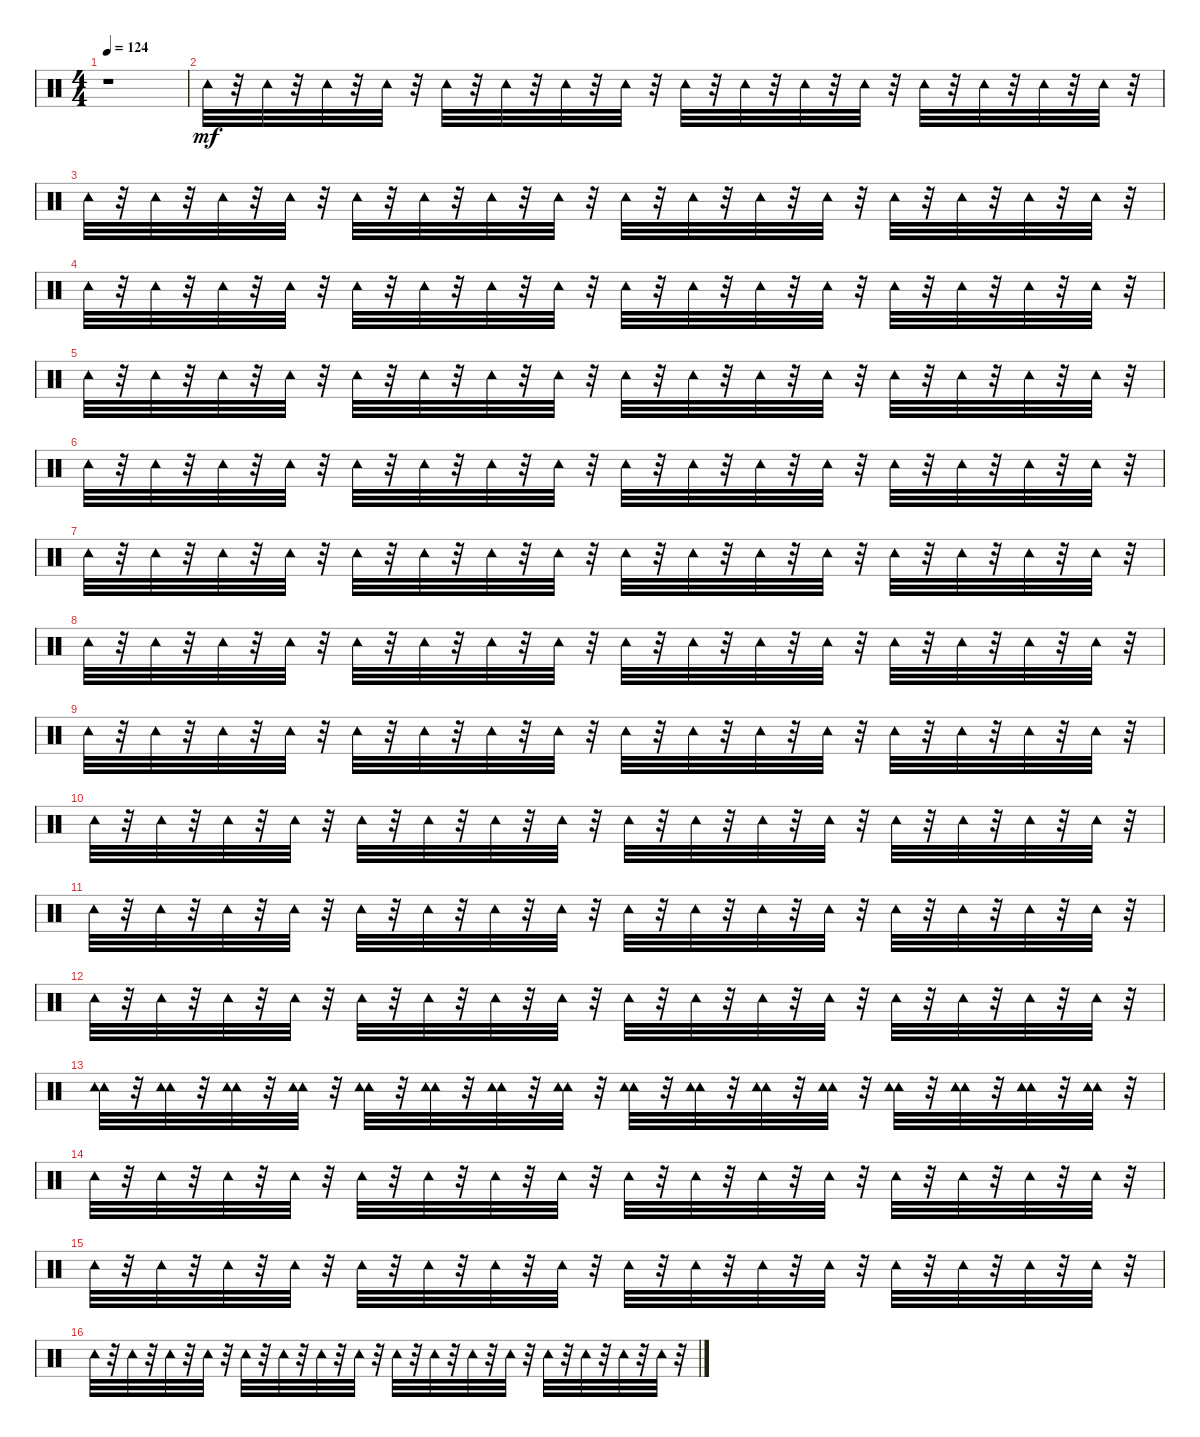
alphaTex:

\track "" {instrument percussion}
\staff {score}
\articulation defaults
\ts (4 4)
\tempo 124
\clef neutral
\ks c
r.1{dy mf} |
"Tambourine (hit)".32 r.32 "Tambourine (hit)".32 r.32 "Tambourine (hit)".32 r.32 "Tambourine (hit)".32 r.32 "Tambourine (hit)".32 r.32 "Tambourine (hit)".32 r.32 "Tambourine (hit)".32 r.32 "Tambourine (hit)".32 r.32 "Tambourine (hit)".32 r.32 "Tambourine (hit)".32 r.32 "Tambourine (hit)".32 r.32 "Tambourine (hit)".32 r.32 "Tambourine (hit)".32 r.32 "Tambourine (hit)".32 r.32 "Tambourine (hit)".32 r.32 "Tambourine (hit)".32 r.32 |
"Tambourine (hit)".32 r.32 "Tambourine (hit)".32 r.32 "Tambourine (hit)".32 r.32 "Tambourine (hit)".32 r.32 "Tambourine (hit)".32 r.32 "Tambourine (hit)".32 r.32 "Tambourine (hit)".32 r.32 "Tambourine (hit)".32 r.32 "Tambourine (hit)".32 r.32 "Tambourine (hit)".32 r.32 "Tambourine (hit)".32 r.32 "Tambourine (hit)".32 r.32 "Tambourine (hit)".32 r.32 "Tambourine (hit)".32 r.32 "Tambourine (hit)".32 r.32 "Tambourine (hit)".32 r.32 |
"Tambourine (hit)".32 r.32 "Tambourine (hit)".32 r.32 "Tambourine (hit)".32 r.32 "Tambourine (hit)".32 r.32 "Tambourine (hit)".32 r.32 "Tambourine (hit)".32 r.32 "Tambourine (hit)".32 r.32 "Tambourine (hit)".32 r.32 "Tambourine (hit)".32 r.32 "Tambourine (hit)".32 r.32 "Tambourine (hit)".32 r.32 "Tambourine (hit)".32 r.32 "Tambourine (hit)".32 r.32 "Tambourine (hit)".32 r.32 "Tambourine (hit)".32 r.32 "Tambourine (hit)".32 r.32 |
"Tambourine (hit)".32 r.32 "Tambourine (hit)".32 r.32 "Tambourine (hit)".32 r.32 "Tambourine (hit)".32 r.32 "Tambourine (hit)".32 r.32 "Tambourine (hit)".32 r.32 "Tambourine (hit)".32 r.32 "Tambourine (hit)".32 r.32 "Tambourine (hit)".32 r.32 "Tambourine (hit)".32 r.32 "Tambourine (hit)".32 r.32 "Tambourine (hit)".32 r.32 "Tambourine (hit)".32 r.32 "Tambourine (hit)".32 r.32 "Tambourine (hit)".32 r.32 "Tambourine (hit)".32 r.32 |
"Tambourine (hit)".32 r.32 "Tambourine (hit)".32 r.32 "Tambourine (hit)".32 r.32 "Tambourine (hit)".32 r.32 "Tambourine (hit)".32 r.32 "Tambourine (hit)".32 r.32 "Tambourine (hit)".32 r.32 "Tambourine (hit)".32 r.32 "Tambourine (hit)".32 r.32 "Tambourine (hit)".32 r.32 "Tambourine (hit)".32 r.32 "Tambourine (hit)".32 r.32 "Tambourine (hit)".32 r.32 "Tambourine (hit)".32 r.32 "Tambourine (hit)".32 r.32 "Tambourine (hit)".32 r.32 |
"Tambourine (hit)".32 r.32 "Tambourine (hit)".32 r.32 "Tambourine (hit)".32 r.32 "Tambourine (hit)".32 r.32 "Tambourine (hit)".32 r.32 "Tambourine (hit)".32 r.32 "Tambourine (hit)".32 r.32 "Tambourine (hit)".32 r.32 "Tambourine (hit)".32 r.32 "Tambourine (hit)".32 r.32 "Tambourine (hit)".32 r.32 "Tambourine (hit)".32 r.32 "Tambourine (hit)".32 r.32 "Tambourine (hit)".32 r.32 "Tambourine (hit)".32 r.32 "Tambourine (hit)".32 r.32 |
"Tambourine (hit)".32 r.32 "Tambourine (hit)".32 r.32 "Tambourine (hit)".32 r.32 "Tambourine (hit)".32 r.32 "Tambourine (hit)".32 r.32 "Tambourine (hit)".32 r.32 "Tambourine (hit)".32 r.32 "Tambourine (hit)".32 r.32 "Tambourine (hit)".32 r.32 "Tambourine (hit)".32 r.32 "Tambourine (hit)".32 r.32 "Tambourine (hit)".32 r.32 "Tambourine (hit)".32 r.32 "Tambourine (hit)".32 r.32 "Tambourine (hit)".32 r.32 "Tambourine (hit)".32 r.32 |
"Tambourine (hit)".32 r.32 "Tambourine (hit)".32 r.32 "Tambourine (hit)".32 r.32 "Tambourine (hit)".32 r.32 "Tambourine (hit)".32 r.32 "Tambourine (hit)".32 r.32 "Tambourine (hit)".32 r.32 "Tambourine (hit)".32 r.32 "Tambourine (hit)".32 r.32 "Tambourine (hit)".32 r.32 "Tambourine (hit)".32 r.32 "Tambourine (hit)".32 r.32 "Tambourine (hit)".32 r.32 "Tambourine (hit)".32 r.32 "Tambourine (hit)".32 r.32 "Tambourine (hit)".32 r.32 |
"Tambourine (hit)".32 r.32 "Tambourine (hit)".32 r.32 "Tambourine (hit)".32 r.32 "Tambourine (hit)".32 r.32 "Tambourine (hit)".32 r.32 "Tambourine (hit)".32 r.32 "Tambourine (hit)".32 r.32 "Tambourine (hit)".32 r.32 "Tambourine (hit)".32 r.32 "Tambourine (hit)".32 r.32 "Tambourine (hit)".32 r.32 "Tambourine (hit)".32 r.32 "Tambourine (hit)".32 r.32 "Tambourine (hit)".32 r.32 "Tambourine (hit)".32 r.32 "Tambourine (hit)".32 r.32 |
"Tambourine (hit)".32 r.32 "Tambourine (hit)".32 r.32 "Tambourine (hit)".32 r.32 "Tambourine (hit)".32 r.32 "Tambourine (hit)".32 r.32 "Tambourine (hit)".32 r.32 "Tambourine (hit)".32 r.32 "Tambourine (hit)".32 r.32 "Tambourine (hit)".32 r.32 "Tambourine (hit)".32 r.32 "Tambourine (hit)".32 r.32 "Tambourine (hit)".32 r.32 "Tambourine (hit)".32 r.32 "Tambourine (hit)".32 r.32 "Tambourine (hit)".32 r.32 "Tambourine (hit)".32 r.32 |
"Tambourine (hit)".32 r.32 "Tambourine (hit)".32 r.32 "Tambourine (hit)".32 r.32 "Tambourine (hit)".32 r.32 "Tambourine (hit)".32 r.32 "Tambourine (hit)".32 r.32 "Tambourine (hit)".32 r.32 "Tambourine (hit)".32 r.32 "Tambourine (hit)".32 r.32 "Tambourine (hit)".32 r.32 "Tambourine (hit)".32 r.32 "Tambourine (hit)".32 r.32 "Tambourine (hit)".32 r.32 "Tambourine (hit)".32 r.32 "Tambourine (hit)".32 r.32 "Tambourine (hit)".32 r.32 |
("Tambourine (hit)" "Tambourine (hit)").32 r.32 ("Tambourine (hit)" "Tambourine (hit)").32 r.32 ("Tambourine (hit)" "Tambourine (hit)").32 r.32 ("Tambourine (hit)" "Tambourine (hit)").32 r.32 ("Tambourine (hit)" "Tambourine (hit)").32 r.32 ("Tambourine (hit)" "Tambourine (hit)").32 r.32 ("Tambourine (hit)" "Tambourine (hit)").32 r.32 ("Tambourine (hit)" "Tambourine (hit)").32 r.32 ("Tambourine (hit)" "Tambourine (hit)").32 r.32 ("Tambourine (hit)" "Tambourine (hit)").32 r.32 ("Tambourine (hit)" "Tambourine (hit)").32 r.32 ("Tambourine (hit)" "Tambourine (hit)").32 r.32 ("Tambourine (hit)" "Tambourine (hit)").32 r.32 ("Tambourine (hit)" "Tambourine (hit)").32 r.32 ("Tambourine (hit)" "Tambourine (hit)").32 r.32 ("Tambourine (hit)" "Tambourine (hit)").32 r.32 |
"Tambourine (hit)".32 r.32 "Tambourine (hit)".32 r.32 "Tambourine (hit)".32 r.32 "Tambourine (hit)".32 r.32 "Tambourine (hit)".32 r.32 "Tambourine (hit)".32 r.32 "Tambourine (hit)".32 r.32 "Tambourine (hit)".32 r.32 "Tambourine (hit)".32 r.32 "Tambourine (hit)".32 r.32 "Tambourine (hit)".32 r.32 "Tambourine (hit)".32 r.32 "Tambourine (hit)".32 r.32 "Tambourine (hit)".32 r.32 "Tambourine (hit)".32 r.32 "Tambourine (hit)".32 r.32 |
"Tambourine (hit)".32 r.32 "Tambourine (hit)".32 r.32 "Tambourine (hit)".32 r.32 "Tambourine (hit)".32 r.32 "Tambourine (hit)".32 r.32 "Tambourine (hit)".32 r.32 "Tambourine (hit)".32 r.32 "Tambourine (hit)".32 r.32 "Tambourine (hit)".32 r.32 "Tambourine (hit)".32 r.32 "Tambourine (hit)".32 r.32 "Tambourine (hit)".32 r.32 "Tambourine (hit)".32 r.32 "Tambourine (hit)".32 r.32 "Tambourine (hit)".32 r.32 "Tambourine (hit)".32 r.32 |
"Tambourine (hit)".32 r.32 "Tambourine (hit)".32 r.32 "Tambourine (hit)".32 r.32 "Tambourine (hit)".32 r.32 "Tambourine (hit)".32 r.32 "Tambourine (hit)".32 r.32 "Tambourine (hit)".32 r.32 "Tambourine (hit)".32 r.32 "Tambourine (hit)".32 r.32 "Tambourine (hit)".32 r.32 "Tambourine (hit)".32 r.32 "Tambourine (hit)".32 r.32 "Tambourine (hit)".32 r.32 "Tambourine (hit)".32 r.32 "Tambourine (hit)".32 r.32 "Tambourine (hit)".32 r.32
